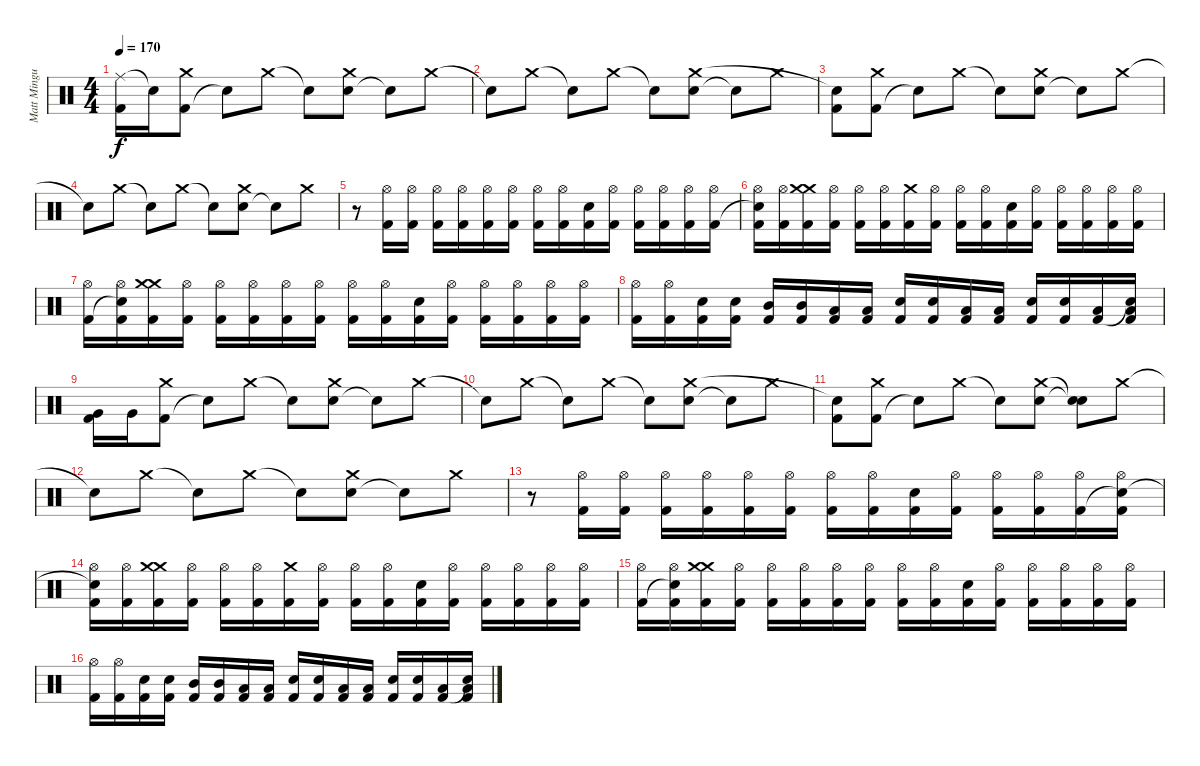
\track ("Matt Mingus" "Matt Mingu") {instrument percussion}
\staff {score}
\articulation defaults
\ts (4 4)
\tempo 170
\clef neutral
\ks c
("Ride (middle)" "Kick (hit) 2").16{dy f} "Snare (hit)"{t}.16 ("Kick (hit) 2" "Crash medium (hit)").8 "Snare (hit)"{t}.8 "Crash medium (hit)".8 "Snare (hit)"{t}.8 ("Electric Snare (hit)" "Crash medium (hit)").8 "Snare (hit)"{t}.8 "Crash medium (hit)".8 |
"Snare (hit)"{t}.8 "Crash medium (hit)".8 "Snare (hit)"{t}.8 "Crash medium (hit)".8 "Snare (hit)"{t}.8 ("Electric Snare (hit)" "Crash medium (hit)").8 "Snare (hit)"{t}.8 "Crash medium (hit)".8 |
("Kick (hit) 2" "Snare (hit)"{t}).8 ("Kick (hit) 2" "Crash medium (hit)").8 "Snare (hit)"{t}.8 "Crash medium (hit)".8 "Snare (hit)"{t}.8 ("Electric Snare (hit)" "Crash medium (hit)").8 "Snare (hit)"{t}.8 "Crash medium (hit)".8 |
"Snare (hit)"{t}.8 "Crash medium (hit)".8 "Snare (hit)"{t}.8 "Crash medium (hit)".8 "Snare (hit)"{t}.8 ("Electric Snare (hit)" "Crash medium (hit)").8 "Snare (hit)"{t}.8 "Crash medium (hit)".8 |
r.8 ("Hi-Hat (open)" "Kick (hit) 2").16 ("Hi-Hat (open)" "Kick (hit) 2").16 ("Hi-Hat (open)" "Kick (hit) 2").16 ("Hi-Hat (open)" "Kick (hit) 2").16 ("Hi-Hat (open)" "Kick (hit) 2").16 ("Hi-Hat (open)" "Kick (hit) 2").16 ("Hi-Hat (open)" "Kick (hit) 2").16 ("Hi-Hat (open)" "Kick (hit) 2").16 ("Electric Snare (hit)" "Kick (hit) 2").16 ("Hi-Hat (open)" "Kick (hit) 2").16 ("Hi-Hat (open)" "Kick (hit) 2").16 ("Hi-Hat (open)" "Kick (hit) 2").16 ("Hi-Hat (open)" "Kick (hit) 2").16 ("Hi-Hat (open)" "Kick (hit) 2").16 |
("Hi-Hat (open)" "Snare (hit)"{t} "Kick (hit) 2").16 ("Hi-Hat (open)" "Kick (hit) 2").16 ("Crash medium (hit)" "Crash medium (hit)" "Kick (hit) 2").16 ("Hi-Hat (open)" "Kick (hit) 2").16 ("Hi-Hat (open)" "Kick (hit) 2").16 ("Hi-Hat (open)" "Kick (hit) 2").16 ("Crash medium (hit)" "Kick (hit) 2").16 ("Hi-Hat (open)" "Kick (hit) 2").16 ("Hi-Hat (open)" "Kick (hit) 2").16 ("Hi-Hat (open)" "Kick (hit) 2").16 ("Electric Snare (hit)" "Kick (hit) 2").16 ("Hi-Hat (open)" "Kick (hit) 2").16 ("Hi-Hat (open)" "Kick (hit) 2").16 ("Hi-Hat (open)" "Kick (hit) 2").16 ("Hi-Hat (open)" "Kick (hit) 2").16 ("Hi-Hat (open)" "Kick (hit) 2").16 |
("Hi-Hat (open)" "Kick (hit) 2").16 ("Hi-Hat (open)" "Snare (hit)"{t} "Kick (hit) 2").16 ("Crash medium (hit)" "Crash medium (hit)" "Kick (hit) 2").16 ("Hi-Hat (open)" "Kick (hit) 2").16 ("Hi-Hat (open)" "Kick (hit) 2").16 ("Hi-Hat (open)" "Kick (hit) 2").16 ("Hi-Hat (open)" "Kick (hit) 2").16 ("Hi-Hat (open)" "Kick (hit) 2").16 ("Hi-Hat (open)" "Kick (hit) 2").16 ("Hi-Hat (open)" "Kick (hit) 2").16 ("Electric Snare (hit)" "Kick (hit) 2").16 ("Hi-Hat (open)" "Kick (hit) 2").16 ("Hi-Hat (open)" "Kick (hit) 2").16 ("Hi-Hat (open)" "Kick (hit) 2").16 ("Hi-Hat (open)" "Kick (hit) 2").16 ("Hi-Hat (open)" "Kick (hit) 2").16 |
("Hi-Hat (open)" "Kick (hit) 2").16 ("Hi-Hat (open)" "Kick (hit) 2").16 ("Electric Snare (hit)" "Kick (hit) 2").16 ("Electric Snare (hit)" "Kick (hit) 2").16 ("Mid Tom (hit)" "Kick (hit) 2").16 ("Mid Tom (hit)" "Kick (hit) 2").16 ("Low Tom (hit)" "Kick (hit) 2").16 ("Low Tom (hit)" "Kick (hit) 2").16 ("Electric Snare (hit)" "Kick (hit) 2").16 ("Electric Snare (hit)" "Kick (hit) 2").16 ("Low Tom (hit)" "Kick (hit) 2").16 ("Low Tom (hit)" "Kick (hit) 2").16 ("Electric Snare (hit)" "Kick (hit) 2").16 ("Electric Snare (hit)" "Kick (hit) 2").16 ("Low Tom (hit)" "Kick (hit) 2").16 ("Low Tom (hit)" "Snare (hit)"{t} "Kick (hit) 2").16 |
("Very Low Tom (hit)" "Kick (hit) 2").16 "Very Low Tom (hit)".16 ("Kick (hit) 2" "Crash medium (hit)").8 "Snare (hit)"{t}.8 "Crash medium (hit)".8 "Snare (hit)"{t}.8 ("Electric Snare (hit)" "Crash medium (hit)").8 "Snare (hit)"{t}.8 "Crash medium (hit)".8 |
"Snare (hit)"{t}.8 "Crash medium (hit)".8 "Snare (hit)"{t}.8 "Crash medium (hit)".8 "Snare (hit)"{t}.8 ("Electric Snare (hit)" "Crash medium (hit)").8 "Snare (hit)"{t}.8 "Crash medium (hit)".8 |
("Kick (hit) 2" "Snare (hit)"{t}).8 ("Kick (hit) 2" "Crash medium (hit)").8 "Snare (hit)"{t}.8 "Crash medium (hit)".8 "Snare (hit)"{t}.8 ("Electric Snare (hit)" "Crash medium (hit)").8 ("Snare (hit)"{t} "Snare (hit)"{t}).8 "Crash medium (hit)".8 |
"Snare (hit)"{t}.8 "Crash medium (hit)".8 "Snare (hit)"{t}.8 "Crash medium (hit)".8 "Snare (hit)"{t}.8 ("Electric Snare (hit)" "Crash medium (hit)").8 "Snare (hit)"{t}.8 "Crash medium (hit)".8 |
r.8 ("Hi-Hat (open)" "Kick (hit) 2").16 ("Hi-Hat (open)" "Kick (hit) 2").16 ("Hi-Hat (open)" "Kick (hit) 2").16 ("Hi-Hat (open)" "Kick (hit) 2").16 ("Hi-Hat (open)" "Kick (hit) 2").16 ("Hi-Hat (open)" "Kick (hit) 2").16 ("Hi-Hat (open)" "Kick (hit) 2").16 ("Hi-Hat (open)" "Kick (hit) 2").16 ("Electric Snare (hit)" "Kick (hit) 2").16 ("Hi-Hat (open)" "Kick (hit) 2").16 ("Hi-Hat (open)" "Kick (hit) 2").16 ("Hi-Hat (open)" "Kick (hit) 2").16 ("Hi-Hat (open)" "Kick (hit) 2").16 ("Hi-Hat (open)" "Snare (hit)"{t} "Kick (hit) 2").16 |
("Hi-Hat (open)" "Snare (hit)"{t} "Kick (hit) 2").16 ("Hi-Hat (open)" "Kick (hit) 2").16 ("Crash medium (hit)" "Crash medium (hit)" "Kick (hit) 2").16 ("Hi-Hat (open)" "Kick (hit) 2").16 ("Hi-Hat (open)" "Kick (hit) 2").16 ("Hi-Hat (open)" "Kick (hit) 2").16 ("Crash medium (hit)" "Kick (hit) 2").16 ("Hi-Hat (open)" "Kick (hit) 2").16 ("Hi-Hat (open)" "Kick (hit) 2").16 ("Hi-Hat (open)" "Kick (hit) 2").16 ("Electric Snare (hit)" "Kick (hit) 2").16 ("Hi-Hat (open)" "Kick (hit) 2").16 ("Hi-Hat (open)" "Kick (hit) 2").16 ("Hi-Hat (open)" "Kick (hit) 2").16 ("Hi-Hat (open)" "Kick (hit) 2").16 ("Hi-Hat (open)" "Kick (hit) 2").16 |
("Hi-Hat (open)" "Kick (hit) 2").16 ("Hi-Hat (open)" "Snare (hit)"{t} "Kick (hit) 2").16 ("Crash medium (hit)" "Crash medium (hit)" "Kick (hit) 2").16 ("Hi-Hat (open)" "Kick (hit) 2").16 ("Hi-Hat (open)" "Kick (hit) 2").16 ("Hi-Hat (open)" "Kick (hit) 2").16 ("Hi-Hat (open)" "Kick (hit) 2").16 ("Hi-Hat (open)" "Kick (hit) 2").16 ("Hi-Hat (open)" "Kick (hit) 2").16 ("Hi-Hat (open)" "Kick (hit) 2").16 ("Electric Snare (hit)" "Kick (hit) 2").16 ("Hi-Hat (open)" "Kick (hit) 2").16 ("Hi-Hat (open)" "Kick (hit) 2").16 ("Hi-Hat (open)" "Kick (hit) 2").16 ("Hi-Hat (open)" "Kick (hit) 2").16 ("Hi-Hat (open)" "Kick (hit) 2").16 |
("Hi-Hat (open)" "Kick (hit) 2").16 ("Hi-Hat (open)" "Kick (hit) 2").16 ("Electric Snare (hit)" "Kick (hit) 2").16 ("Electric Snare (hit)" "Kick (hit) 2").16 ("Mid Tom (hit)" "Kick (hit) 2").16 ("Mid Tom (hit)" "Kick (hit) 2").16 ("Low Tom (hit)" "Kick (hit) 2").16 ("Low Tom (hit)" "Kick (hit) 2").16 ("Electric Snare (hit)" "Kick (hit) 2").16 ("Electric Snare (hit)" "Kick (hit) 2").16 ("Low Tom (hit)" "Kick (hit) 2").16 ("Low Tom (hit)" "Kick (hit) 2").16 ("Electric Snare (hit)" "Kick (hit) 2").16 ("Electric Snare (hit)" "Kick (hit) 2").16 ("Low Tom (hit)" "Kick (hit) 2").16 ("Low Tom (hit)" "Snare (hit)"{t} "Kick (hit) 2").16
